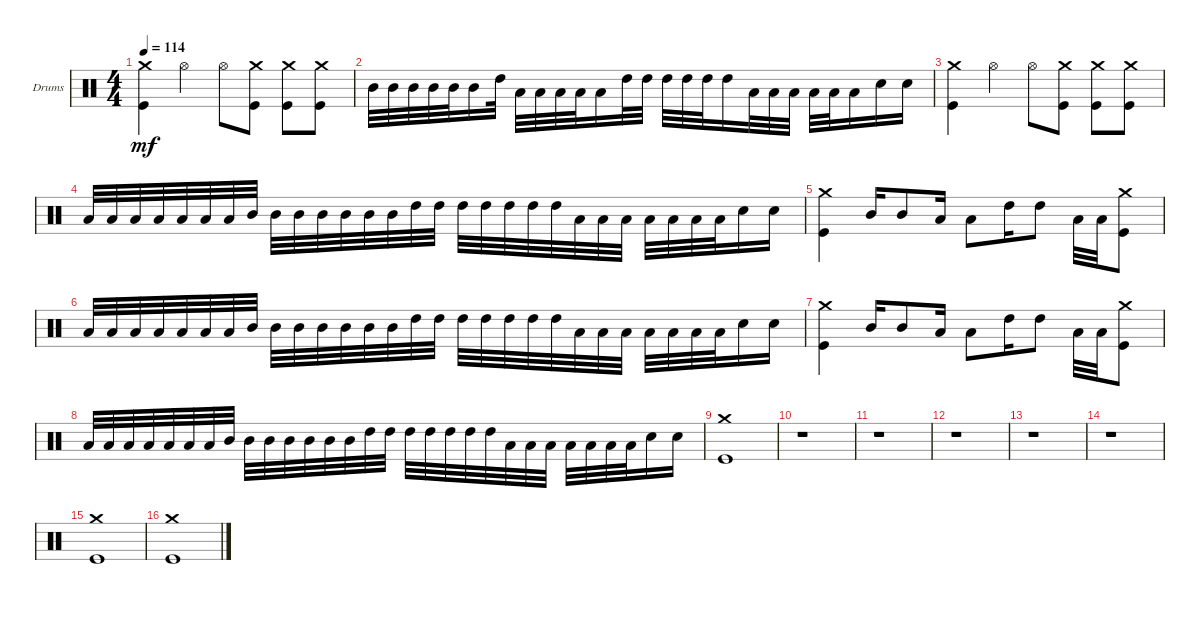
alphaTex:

\defaultSystemsLayout 4
\bracketExtendMode groupsimilarinstruments
\firstSystemTrackNameOrientation horizontal
\otherSystemsTrackNameOrientation horizontal
\track ("Drums Inferno" "Drums") {instrument percussion}
\staff {score}
\articulation defaults
\ts (4 4)
\tempo 114
\clef neutral
\scale
0.333333
\ks c
("Kick (hit)" "Crash medium (hit)").4{dy mf} "Hi-Hat (open)".4 "Hi-Hat (open)".8 ("Crash medium (hit)" "Kick (hit)").8 ("Crash medium (hit)" "Kick (hit)").8 ("Kick (hit)" "Crash medium (hit)").8 |
\scale
0.333333 "Mid Tom (hit)".32 "Mid Tom (hit)".32 "Mid Tom (hit)".32 "Mid Tom (hit)".32 "Mid Tom (hit)".32 "Mid Tom (hit)".16 "High Tom (hit)".32 "Low Tom (hit)".32 "Low Tom (hit)".32 "Low Tom (hit)".32 "Low Tom (hit)".32 "Low Tom (hit)".16 "High Tom (hit)".32 "High Tom (hit)".32 "High Tom (hit)".32 "High Tom (hit)".32 "High Tom (hit)".32 "High Tom (hit)".16 "Low Tom (hit)".32 "Low Tom (hit)".32 "Low Tom (hit)".32 "Low Tom (hit)".32 "Low Tom (hit)".32 "Low Tom (hit)".16 "Snare (hit) 2".16 "Snare (hit) 2".16 |
\scale
0.333333 ("Kick (hit)" "Crash medium (hit)").4 "Hi-Hat (open)".4 "Hi-Hat (open)".8 ("Crash medium (hit)" "Kick (hit)").8 ("Crash medium (hit)" "Kick (hit)").8 ("Kick (hit)" "Crash medium (hit)").8 |
\scale
0.333333 "Low Tom (hit)".32 "Low Tom (hit)".32 "Low Tom (hit)".32 "Low Tom (hit)".32 "Low Tom (hit)".32 "Low Tom (hit)".32 "Low Tom (hit)".32 "Mid Tom (hit)".32 "Mid Tom (hit)".32 "Mid Tom (hit)".32 "Mid Tom (hit)".32 "Mid Tom (hit)".32 "Mid Tom (hit)".32 "Mid Tom (hit)".32 "High Tom (hit)".32 "High Tom (hit)".32 "High Tom (hit)".32 "High Tom (hit)".32 "High Tom (hit)".32 "High Tom (hit)".32 "High Tom (hit)".32 "Low Tom (hit)".32 "Low Tom (hit)".32 "Low Tom (hit)".32 "Low Tom (hit)".32 "Low Tom (hit)".32 "Low Tom (hit)".32 "Low Tom (hit)".32 "Snare (hit) 2".16 "Snare (hit) 2".16 |
\scale
0.333333 ("Kick (hit)" "Crash medium (hit)").4 "Mid Tom (hit)".16 "Mid Tom (hit)".8 "Low Tom (hit)".16 "Low Tom (hit)".8 "High Tom (hit)".16 "High Tom (hit)".8 "Low Tom (hit)".32 "Low Tom (hit)".32 ("Kick (hit)" "Crash medium (hit)").8 |
\scale
0.333333 "Low Tom (hit)".32 "Low Tom (hit)".32 "Low Tom (hit)".32 "Low Tom (hit)".32 "Low Tom (hit)".32 "Low Tom (hit)".32 "Low Tom (hit)".32 "Mid Tom (hit)".32 "Mid Tom (hit)".32 "Mid Tom (hit)".32 "Mid Tom (hit)".32 "Mid Tom (hit)".32 "Mid Tom (hit)".32 "Mid Tom (hit)".32 "High Tom (hit)".32 "High Tom (hit)".32 "High Tom (hit)".32 "High Tom (hit)".32 "High Tom (hit)".32 "High Tom (hit)".32 "High Tom (hit)".32 "Low Tom (hit)".32 "Low Tom (hit)".32 "Low Tom (hit)".32 "Low Tom (hit)".32 "Low Tom (hit)".32 "Low Tom (hit)".32 "Low Tom (hit)".32 "Snare (hit) 2".16 "Snare (hit) 2".16 |
\scale
0.333333 ("Kick (hit)" "Crash medium (hit)").4 "Mid Tom (hit)".16 "Mid Tom (hit)".8 "Low Tom (hit)".16 "Low Tom (hit)".8 "High Tom (hit)".16 "High Tom (hit)".8 "Low Tom (hit)".32 "Low Tom (hit)".32 ("Kick (hit)" "Crash medium (hit)").8 |
\scale
0.333333 "Low Tom (hit)".32 "Low Tom (hit)".32 "Low Tom (hit)".32 "Low Tom (hit)".32 "Low Tom (hit)".32 "Low Tom (hit)".32 "Low Tom (hit)".32 "Mid Tom (hit)".32 "Mid Tom (hit)".32 "Mid Tom (hit)".32 "Mid Tom (hit)".32 "Mid Tom (hit)".32 "Mid Tom (hit)".32 "Mid Tom (hit)".32 "High Tom (hit)".32 "High Tom (hit)".32 "High Tom (hit)".32 "High Tom (hit)".32 "High Tom (hit)".32 "High Tom (hit)".32 "High Tom (hit)".32 "Low Tom (hit)".32 "Low Tom (hit)".32 "Low Tom (hit)".32 "Low Tom (hit)".32 "Low Tom (hit)".32 "Low Tom (hit)".32 "Low Tom (hit)".32 "Snare (hit) 2".16 "Snare (hit) 2".16 |
\scale
0.333333 ("Kick (hit)" "Crash medium (hit)").1 |
\scale
0.333333 r.1 |
\scale
0.333333 r.1 |
\scale
0.333333 r.1 |
\scale
0.333333 r.1 |
\scale
0.333333 r.1 |
\scale
0.333333 ("Kick (hit)" "Crash medium (hit)").1 |
\scale
0.333333 ("Kick (hit)" "Crash medium (hit)").1
